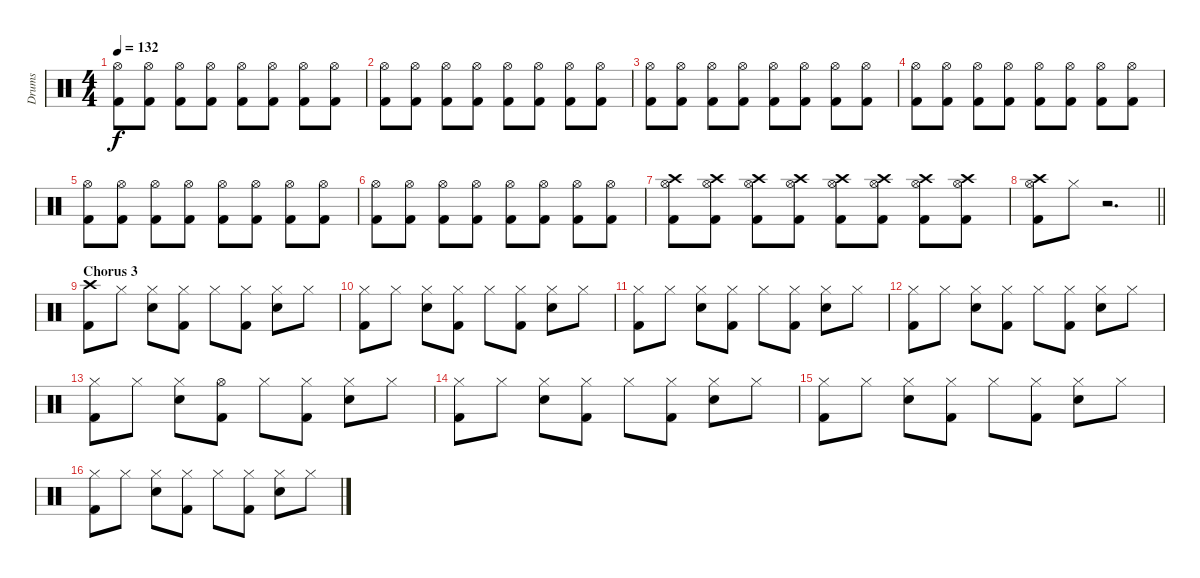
\track ("Drums" "Drums") {instrument percussion}
\staff {score}
\articulation defaults
\ts (4 4)
\tempo 132
\clef neutral
\ks c
("Hi-Hat (open)" "Kick (hit) 2").8{dy f volume 16} ("Hi-Hat (open)" "Kick (hit) 2").8 ("Hi-Hat (open)" "Kick (hit) 2").8 ("Hi-Hat (open)" "Kick (hit) 2").8 ("Hi-Hat (open)" "Kick (hit) 2").8 ("Hi-Hat (open)" "Kick (hit) 2").8 ("Hi-Hat (open)" "Kick (hit) 2").8 ("Hi-Hat (open)" "Kick (hit) 2").8 |
("Hi-Hat (open)" "Kick (hit) 2").8 ("Hi-Hat (open)" "Kick (hit) 2").8 ("Hi-Hat (open)" "Kick (hit) 2").8 ("Hi-Hat (open)" "Kick (hit) 2").8 ("Hi-Hat (open)" "Kick (hit) 2").8 ("Hi-Hat (open)" "Kick (hit) 2").8 ("Hi-Hat (open)" "Kick (hit) 2").8 ("Hi-Hat (open)" "Kick (hit) 2").8 |
("Hi-Hat (open)" "Kick (hit) 2").8 ("Hi-Hat (open)" "Kick (hit) 2").8 ("Hi-Hat (open)" "Kick (hit) 2").8 ("Hi-Hat (open)" "Kick (hit) 2").8 ("Hi-Hat (open)" "Kick (hit) 2").8 ("Hi-Hat (open)" "Kick (hit) 2").8 ("Hi-Hat (open)" "Kick (hit) 2").8 ("Hi-Hat (open)" "Kick (hit) 2").8 |
("Hi-Hat (open)" "Kick (hit) 2").8 ("Hi-Hat (open)" "Kick (hit) 2").8 ("Hi-Hat (open)" "Kick (hit) 2").8 ("Hi-Hat (open)" "Kick (hit) 2").8 ("Hi-Hat (open)" "Kick (hit) 2").8 ("Hi-Hat (open)" "Kick (hit) 2").8 ("Hi-Hat (open)" "Kick (hit) 2").8 ("Hi-Hat (open)" "Kick (hit) 2").8 |
("Hi-Hat (open)" "Kick (hit) 2").8 ("Hi-Hat (open)" "Kick (hit) 2").8 ("Hi-Hat (open)" "Kick (hit) 2").8 ("Hi-Hat (open)" "Kick (hit) 2").8 ("Hi-Hat (open)" "Kick (hit) 2").8 ("Hi-Hat (open)" "Kick (hit) 2").8 ("Hi-Hat (open)" "Kick (hit) 2").8 ("Hi-Hat (open)" "Kick (hit) 2").8 |
("Hi-Hat (open)" "Kick (hit) 2").8 ("Hi-Hat (open)" "Kick (hit) 2").8 ("Hi-Hat (open)" "Kick (hit) 2").8 ("Hi-Hat (open)" "Kick (hit) 2").8 ("Hi-Hat (open)" "Kick (hit) 2").8 ("Hi-Hat (open)" "Kick (hit) 2").8 ("Hi-Hat (open)" "Kick (hit) 2").8 ("Hi-Hat (open)" "Kick (hit) 2").8 |
("Crash high (hit)" "Hi-Hat (open)" "Kick (hit) 2").8 ("Crash high (hit)" "Hi-Hat (open)" "Kick (hit) 2").8 ("Crash high (hit)" "Hi-Hat (open)" "Kick (hit) 2").8 ("Crash high (hit)" "Hi-Hat (open)" "Kick (hit) 2").8 ("Crash high (hit)" "Hi-Hat (open)" "Kick (hit) 2").8 ("Crash high (hit)" "Hi-Hat (open)" "Kick (hit) 2").8 ("Crash high (hit)" "Hi-Hat (open)" "Kick (hit) 2").8 ("Crash high (hit)" "Hi-Hat (open)" "Kick (hit) 2").8 |
\barLineRight lightlight
("Crash high (hit)" "Hi-Hat (open)" "Kick (hit) 2").8 "Hi-Hat (closed)".8 r.2{d volume 0} |
\section ("" "Chorus 3")
("Crash high (hit)" "Kick (hit) 2").8{volume 16} "Hi-Hat (closed)".8 ("Hi-Hat (closed)" "Electric Snare (hit)").8 ("Hi-Hat (closed)" "Kick (hit) 2").8 "Hi-Hat (closed)".8 ("Hi-Hat (closed)" "Kick (hit) 2").8 ("Hi-Hat (closed)" "Electric Snare (hit)").8 "Hi-Hat (closed)".8 |
("Hi-Hat (closed)" "Kick (hit) 2").8 "Hi-Hat (closed)".8 ("Hi-Hat (closed)" "Electric Snare (hit)").8 ("Hi-Hat (closed)" "Kick (hit) 2").8 "Hi-Hat (closed)".8 ("Hi-Hat (closed)" "Kick (hit) 2").8 ("Hi-Hat (closed)" "Electric Snare (hit)").8 "Hi-Hat (closed)".8 |
("Hi-Hat (closed)" "Kick (hit) 2").8 "Hi-Hat (closed)".8 ("Hi-Hat (closed)" "Electric Snare (hit)").8 ("Hi-Hat (closed)" "Kick (hit) 2").8 "Hi-Hat (closed)".8 ("Hi-Hat (closed)" "Kick (hit) 2").8 ("Hi-Hat (closed)" "Electric Snare (hit)").8 "Hi-Hat (closed)".8 |
("Hi-Hat (closed)" "Kick (hit) 2").8 "Hi-Hat (closed)".8 ("Hi-Hat (closed)" "Electric Snare (hit)").8 ("Hi-Hat (closed)" "Kick (hit) 2").8 "Hi-Hat (closed)".8 ("Hi-Hat (closed)" "Kick (hit) 2").8 ("Hi-Hat (closed)" "Electric Snare (hit)").8 "Hi-Hat (closed)".8 |
("Hi-Hat (closed)" "Kick (hit) 2").8 "Hi-Hat (closed)".8 ("Hi-Hat (closed)" "Electric Snare (hit)").8 ("Hi-Hat (open)" "Kick (hit) 2").8 "Hi-Hat (closed)".8 ("Hi-Hat (closed)" "Kick (hit) 2").8 ("Hi-Hat (closed)" "Electric Snare (hit)").8 "Hi-Hat (closed)".8 |
("Hi-Hat (closed)" "Kick (hit) 2").8 "Hi-Hat (closed)".8 ("Hi-Hat (closed)" "Electric Snare (hit)").8 ("Hi-Hat (closed)" "Kick (hit) 2").8 "Hi-Hat (closed)".8 ("Hi-Hat (closed)" "Kick (hit) 2").8 ("Hi-Hat (closed)" "Electric Snare (hit)").8 "Hi-Hat (closed)".8 |
("Hi-Hat (closed)" "Kick (hit) 2").8 "Hi-Hat (closed)".8 ("Hi-Hat (closed)" "Electric Snare (hit)").8 ("Hi-Hat (closed)" "Kick (hit) 2").8 "Hi-Hat (closed)".8 ("Hi-Hat (closed)" "Kick (hit) 2").8 ("Hi-Hat (closed)" "Electric Snare (hit)").8 "Hi-Hat (closed)".8 |
("Hi-Hat (closed)" "Kick (hit) 2").8 "Hi-Hat (closed)".8 ("Hi-Hat (closed)" "Electric Snare (hit)").8 ("Hi-Hat (closed)" "Kick (hit) 2").8 "Hi-Hat (closed)".8 ("Hi-Hat (closed)" "Kick (hit) 2").8 ("Hi-Hat (closed)" "Electric Snare (hit)").8 "Hi-Hat (closed)".8
